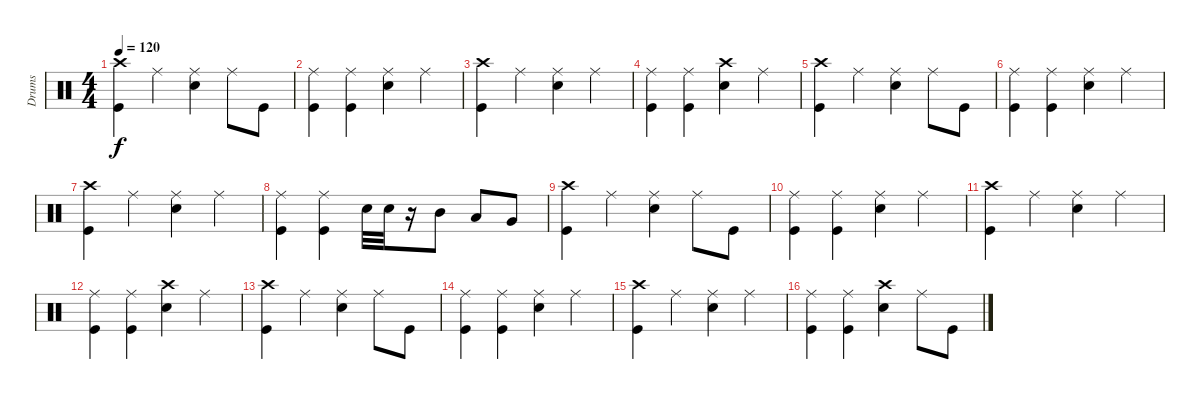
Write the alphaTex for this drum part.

\track ("Drums" "Drums") {instrument percussion}
\staff {score}
\articulation defaults
\ts (4 4)
\tempo 120
\clef neutral
\ks c
("Crash high (hit)" "Kick (hit)").4{dy f} "Ride (middle)".4 ("Ride (middle)" "Snare (hit) 2").4 "Ride (middle)".8 "Kick (hit)".8 |
("Ride (middle)" "Kick (hit)").4 ("Ride (middle)" "Kick (hit)").4 ("Ride (middle)" "Snare (hit) 2").4 "Ride (middle)".4 |
("Crash high (hit)" "Kick (hit)").4 "Ride (middle)".4 ("Ride (middle)" "Snare (hit) 2").4 "Ride (middle)".4 |
("Ride (middle)" "Kick (hit)").4 ("Ride (middle)" "Kick (hit)").4 ("Crash high (hit)" "Snare (hit) 2").4 "Ride (middle)".4 |
("Crash high (hit)" "Kick (hit)").4 "Ride (middle)".4 ("Ride (middle)" "Snare (hit) 2").4 "Ride (middle)".8 "Kick (hit)".8 |
("Ride (middle)" "Kick (hit)").4 ("Ride (middle)" "Kick (hit)").4 ("Ride (middle)" "Snare (hit) 2").4 "Ride (middle)".4 |
("Crash high (hit)" "Kick (hit)").4 "Ride (middle)".4 ("Ride (middle)" "Snare (hit) 2").4 "Ride (middle)".4 |
("Ride (middle)" "Kick (hit)").4 ("Ride (middle)" "Kick (hit)").4 "Snare (hit) 2".32 "Snare (hit) 2".32 r.16 "Mid Tom (hit)".8 "Low Tom (hit)".8 "Very Low Tom (hit)".8 |
("Crash high (hit)" "Kick (hit)").4 "Ride (middle)".4 ("Ride (middle)" "Snare (hit) 2").4 "Ride (middle)".8 "Kick (hit)".8 |
("Ride (middle)" "Kick (hit)").4 ("Ride (middle)" "Kick (hit)").4 ("Ride (middle)" "Snare (hit) 2").4 "Ride (middle)".4 |
("Crash high (hit)" "Kick (hit)").4 "Ride (middle)".4 ("Ride (middle)" "Snare (hit) 2").4 "Ride (middle)".4 |
("Ride (middle)" "Kick (hit)").4 ("Ride (middle)" "Kick (hit)").4 ("Crash high (hit)" "Snare (hit) 2").4 "Ride (middle)".4 |
("Crash high (hit)" "Kick (hit)").4 "Ride (middle)".4 ("Ride (middle)" "Snare (hit) 2").4 "Ride (middle)".8 "Kick (hit)".8 |
("Ride (middle)" "Kick (hit)").4 ("Ride (middle)" "Kick (hit)").4 ("Ride (middle)" "Snare (hit) 2").4 "Ride (middle)".4 |
("Crash high (hit)" "Kick (hit)").4 "Ride (middle)".4 ("Ride (middle)" "Snare (hit) 2").4 "Ride (middle)".4 |
("Ride (middle)" "Kick (hit)").4 ("Ride (middle)" "Kick (hit)").4 ("Crash high (hit)" "Snare (hit) 2").4 "Ride (middle)".8 "Kick (hit)".8
